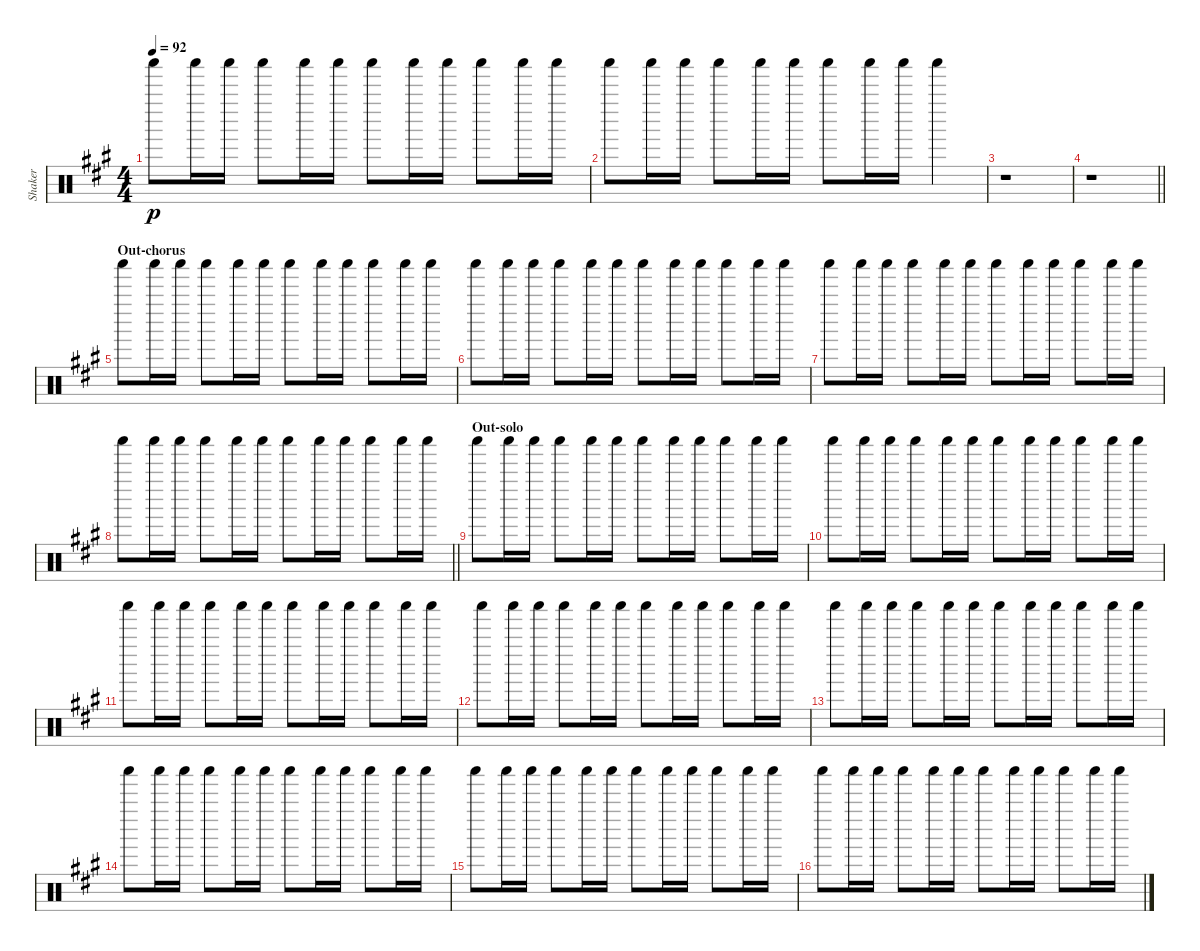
\track ("Shaker" "Shaker") {instrument percussion}
\staff {score}
\articulation defaults
\ts (4 4)
\tempo 92
\clef neutral
\ks f#minor "Shaker (hit)".8{dy p} "Shaker (hit)".16 "Shaker (hit)".16 "Shaker (hit)".8 "Shaker (hit)".16 "Shaker (hit)".16 "Shaker (hit)".8 "Shaker (hit)".16 "Shaker (hit)".16 "Shaker (hit)".8 "Shaker (hit)".16 "Shaker (hit)".16
|
"Shaker (hit)".8 "Shaker (hit)".16 "Shaker (hit)".16 "Shaker (hit)".8 "Shaker (hit)".16 "Shaker (hit)".16 "Shaker (hit)".8 "Shaker (hit)".16 "Shaker (hit)".16 "Shaker (hit)".4 |
r.1 |
\barLineRight lightlight
r.1 |
\section ("" "Out-chorus")
"Shaker (hit)".8 "Shaker (hit)".16 "Shaker (hit)".16 "Shaker (hit)".8 "Shaker (hit)".16 "Shaker (hit)".16 "Shaker (hit)".8 "Shaker (hit)".16 "Shaker (hit)".16 "Shaker (hit)".8 "Shaker (hit)".16 "Shaker (hit)".16 |
"Shaker (hit)".8 "Shaker (hit)".16 "Shaker (hit)".16 "Shaker (hit)".8 "Shaker (hit)".16 "Shaker (hit)".16 "Shaker (hit)".8 "Shaker (hit)".16 "Shaker (hit)".16 "Shaker (hit)".8 "Shaker (hit)".16 "Shaker (hit)".16 |
"Shaker (hit)".8 "Shaker (hit)".16 "Shaker (hit)".16 "Shaker (hit)".8 "Shaker (hit)".16 "Shaker (hit)".16 "Shaker (hit)".8 "Shaker (hit)".16 "Shaker (hit)".16 "Shaker (hit)".8 "Shaker (hit)".16 "Shaker (hit)".16 |
\barLineRight lightlight "Shaker (hit)".8 "Shaker (hit)".16 "Shaker (hit)".16 "Shaker (hit)".8 "Shaker (hit)".16 "Shaker (hit)".16 "Shaker (hit)".8 "Shaker (hit)".16 "Shaker (hit)".16 "Shaker (hit)".8 "Shaker (hit)".16 "Shaker (hit)".16
|
\section ("" "Out-solo")
"Shaker (hit)".8 "Shaker (hit)".16 "Shaker (hit)".16 "Shaker (hit)".8 "Shaker (hit)".16 "Shaker (hit)".16 "Shaker (hit)".8 "Shaker (hit)".16 "Shaker (hit)".16 "Shaker (hit)".8 "Shaker (hit)".16 "Shaker (hit)".16 |
"Shaker (hit)".8 "Shaker (hit)".16 "Shaker (hit)".16 "Shaker (hit)".8 "Shaker (hit)".16 "Shaker (hit)".16 "Shaker (hit)".8 "Shaker (hit)".16 "Shaker (hit)".16 "Shaker (hit)".8 "Shaker (hit)".16 "Shaker (hit)".16 |
"Shaker (hit)".8 "Shaker (hit)".16 "Shaker (hit)".16 "Shaker (hit)".8 "Shaker (hit)".16 "Shaker (hit)".16 "Shaker (hit)".8 "Shaker (hit)".16 "Shaker (hit)".16 "Shaker (hit)".8 "Shaker (hit)".16 "Shaker (hit)".16 |
"Shaker (hit)".8 "Shaker (hit)".16 "Shaker (hit)".16 "Shaker (hit)".8 "Shaker (hit)".16 "Shaker (hit)".16 "Shaker (hit)".8 "Shaker (hit)".16 "Shaker (hit)".16 "Shaker (hit)".8 "Shaker (hit)".16 "Shaker (hit)".16 |
"Shaker (hit)".8 "Shaker (hit)".16 "Shaker (hit)".16 "Shaker (hit)".8 "Shaker (hit)".16 "Shaker (hit)".16 "Shaker (hit)".8 "Shaker (hit)".16 "Shaker (hit)".16 "Shaker (hit)".8 "Shaker (hit)".16 "Shaker (hit)".16 |
"Shaker (hit)".8 "Shaker (hit)".16 "Shaker (hit)".16 "Shaker (hit)".8 "Shaker (hit)".16 "Shaker (hit)".16 "Shaker (hit)".8 "Shaker (hit)".16 "Shaker (hit)".16 "Shaker (hit)".8 "Shaker (hit)".16 "Shaker (hit)".16 |
"Shaker (hit)".8 "Shaker (hit)".16 "Shaker (hit)".16 "Shaker (hit)".8 "Shaker (hit)".16 "Shaker (hit)".16 "Shaker (hit)".8 "Shaker (hit)".16 "Shaker (hit)".16 "Shaker (hit)".8 "Shaker (hit)".16 "Shaker (hit)".16 |
"Shaker (hit)".8 "Shaker (hit)".16 "Shaker (hit)".16 "Shaker (hit)".8 "Shaker (hit)".16 "Shaker (hit)".16 "Shaker (hit)".8 "Shaker (hit)".16 "Shaker (hit)".16 "Shaker (hit)".8 "Shaker (hit)".16 "Shaker (hit)".16
